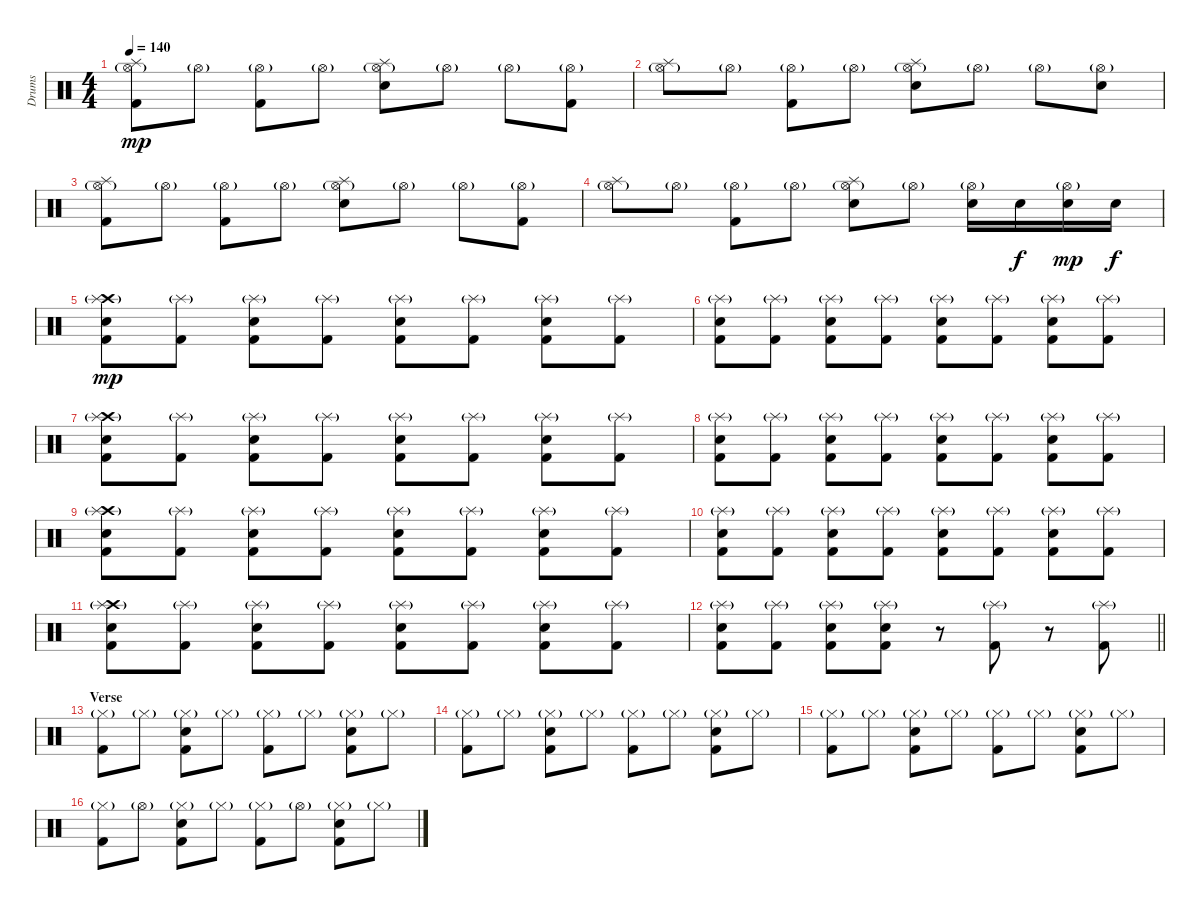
\track ("Drums" "Drums") {instrument percussion}
\staff {score}
\articulation defaults
\ts (4 4)
\tempo 140
\clef neutral
\ks c
("Hi-Hat (open)"{g} "Splash (hit)" "Kick (hit) 2").8{dy mp} "Hi-Hat (open)"{g}.8 ("Hi-Hat (open)"{g} "Kick (hit) 2").8 "Hi-Hat (open)"{g}.8 ("Hi-Hat (open)"{g} "Splash (hit)" "Electric Snare (hit)").8 "Hi-Hat (open)"{g}.8 "Hi-Hat (open)"{g}.8 ("Hi-Hat (open)"{g} "Kick (hit) 2").8 |
("Hi-Hat (open)"{g} "Splash (hit)").8 "Hi-Hat (open)"{g}.8 ("Hi-Hat (open)"{g} "Kick (hit) 2").8 "Hi-Hat (open)"{g}.8 ("Hi-Hat (open)"{g} "Splash (hit)" "Electric Snare (hit)").8 "Hi-Hat (open)"{g}.8 "Hi-Hat (open)"{g}.8 ("Hi-Hat (open)"{g} "Electric Snare (hit)").8 |
("Hi-Hat (open)"{g} "Splash (hit)" "Kick (hit) 2").8 "Hi-Hat (open)"{g}.8 ("Hi-Hat (open)"{g} "Kick (hit) 2").8 "Hi-Hat (open)"{g}.8 ("Hi-Hat (open)"{g} "Splash (hit)" "Electric Snare (hit)").8 "Hi-Hat (open)"{g}.8 "Hi-Hat (open)"{g}.8 ("Hi-Hat (open)"{g} "Kick (hit) 2").8 |
("Hi-Hat (open)"{g} "Splash (hit)").8 "Hi-Hat (open)"{g}.8 ("Hi-Hat (open)"{g} "Kick (hit) 2").8 "Hi-Hat (open)"{g}.8 ("Hi-Hat (open)"{g} "Splash (hit)" "Electric Snare (hit)").8 "Hi-Hat (open)"{g}.8 ("Hi-Hat (open)"{g} "Electric Snare (hit)").16 "Electric Snare (hit)".16{dy f} ("Hi-Hat (open)"{g} "Electric Snare (hit)").16{dy mp} "Electric Snare (hit)".16{dy f} |
("Crash high (hit)" "Splash (hit)"{g} "Electric Snare (hit)" "Kick (hit) 2").8{dy mp} ("Splash (hit)"{g} "Kick (hit) 2").8 ("Splash (hit)"{g} "Electric Snare (hit)" "Kick (hit) 2").8 ("Splash (hit)"{g} "Kick (hit) 2").8 ("Splash (hit)"{g} "Electric Snare (hit)" "Kick (hit) 2").8 ("Splash (hit)"{g} "Kick (hit) 2").8 ("Splash (hit)"{g} "Electric Snare (hit)" "Kick (hit) 2").8 ("Splash (hit)"{g} "Kick (hit) 2").8 |
("Splash (hit)"{g} "Electric Snare (hit)" "Kick (hit) 2").8 ("Splash (hit)"{g} "Kick (hit) 2").8 ("Splash (hit)"{g} "Electric Snare (hit)" "Kick (hit) 2").8 ("Splash (hit)"{g} "Kick (hit) 2").8 ("Splash (hit)"{g} "Electric Snare (hit)" "Kick (hit) 2").8 ("Splash (hit)"{g} "Kick (hit) 2").8 ("Splash (hit)"{g} "Electric Snare (hit)" "Kick (hit) 2").8 ("Splash (hit)"{g} "Kick (hit) 2").8 |
("Crash high (hit)" "Splash (hit)"{g} "Electric Snare (hit)" "Kick (hit) 2").8 ("Splash (hit)"{g} "Kick (hit) 2").8 ("Splash (hit)"{g} "Electric Snare (hit)" "Kick (hit) 2").8 ("Splash (hit)"{g} "Kick (hit) 2").8 ("Splash (hit)"{g} "Electric Snare (hit)" "Kick (hit) 2").8 ("Splash (hit)"{g} "Kick (hit) 2").8 ("Splash (hit)"{g} "Electric Snare (hit)" "Kick (hit) 2").8 ("Splash (hit)"{g} "Kick (hit) 2").8 |
("Splash (hit)"{g} "Electric Snare (hit)" "Kick (hit) 2").8 ("Splash (hit)"{g} "Kick (hit) 2").8 ("Splash (hit)"{g} "Electric Snare (hit)" "Kick (hit) 2").8 ("Splash (hit)"{g} "Kick (hit) 2").8 ("Splash (hit)"{g} "Electric Snare (hit)" "Kick (hit) 2").8 ("Splash (hit)"{g} "Kick (hit) 2").8 ("Splash (hit)"{g} "Electric Snare (hit)" "Kick (hit) 2").8 ("Splash (hit)"{g} "Kick (hit) 2").8 |
("Crash high (hit)" "Splash (hit)"{g} "Electric Snare (hit)" "Kick (hit) 2").8 ("Splash (hit)"{g} "Kick (hit) 2").8 ("Splash (hit)"{g} "Electric Snare (hit)" "Kick (hit) 2").8 ("Splash (hit)"{g} "Kick (hit) 2").8 ("Splash (hit)"{g} "Electric Snare (hit)" "Kick (hit) 2").8 ("Splash (hit)"{g} "Kick (hit) 2").8 ("Splash (hit)"{g} "Electric Snare (hit)" "Kick (hit) 2").8 ("Splash (hit)"{g} "Kick (hit) 2").8 |
("Splash (hit)"{g} "Electric Snare (hit)" "Kick (hit) 2").8 ("Splash (hit)"{g} "Kick (hit) 2").8 ("Splash (hit)"{g} "Electric Snare (hit)" "Kick (hit) 2").8 ("Splash (hit)"{g} "Kick (hit) 2").8 ("Splash (hit)"{g} "Electric Snare (hit)" "Kick (hit) 2").8 ("Splash (hit)"{g} "Kick (hit) 2").8 ("Splash (hit)"{g} "Electric Snare (hit)" "Kick (hit) 2").8 ("Splash (hit)"{g} "Kick (hit) 2").8 |
("Crash high (hit)" "Splash (hit)"{g} "Electric Snare (hit)" "Kick (hit) 2").8 ("Splash (hit)"{g} "Kick (hit) 2").8 ("Splash (hit)"{g} "Electric Snare (hit)" "Kick (hit) 2").8 ("Splash (hit)"{g} "Kick (hit) 2").8 ("Splash (hit)"{g} "Electric Snare (hit)" "Kick (hit) 2").8 ("Splash (hit)"{g} "Kick (hit) 2").8 ("Splash (hit)"{g} "Electric Snare (hit)" "Kick (hit) 2").8 ("Splash (hit)"{g} "Kick (hit) 2").8 |
\barLineRight lightlight
("Splash (hit)"{g} "Electric Snare (hit)" "Kick (hit) 2").8 ("Splash (hit)"{g} "Kick (hit) 2").8 ("Splash (hit)"{g} "Electric Snare (hit)" "Kick (hit) 2").8 ("Splash (hit)"{g} "Electric Snare (hit)" "Kick (hit) 2").8 r.8 ("Splash (hit)"{g} "Kick (hit) 2").8 r.8 ("Splash (hit)"{g} "Kick (hit) 2").8 |
\section ("" "Verse")
("Hi-Hat (closed)"{g} "Kick (hit) 2").8 "Hi-Hat (closed)"{g}.8 ("Hi-Hat (closed)"{g} "Electric Snare (hit)" "Kick (hit) 2").8 "Hi-Hat (closed)"{g}.8 ("Hi-Hat (closed)"{g} "Kick (hit) 2").8 "Hi-Hat (closed)"{g}.8 ("Hi-Hat (closed)"{g} "Electric Snare (hit)" "Kick (hit) 2").8 "Hi-Hat (closed)"{g}.8 |
("Hi-Hat (closed)"{g} "Kick (hit) 2").8 "Hi-Hat (closed)"{g}.8 ("Hi-Hat (closed)"{g} "Electric Snare (hit)" "Kick (hit) 2").8 "Hi-Hat (closed)"{g}.8 ("Hi-Hat (closed)"{g} "Kick (hit) 2").8 "Hi-Hat (closed)"{g}.8 ("Hi-Hat (closed)"{g} "Electric Snare (hit)" "Kick (hit) 2").8 "Hi-Hat (closed)"{g}.8 |
("Hi-Hat (closed)"{g} "Kick (hit) 2").8 "Hi-Hat (closed)"{g}.8 ("Hi-Hat (closed)"{g} "Electric Snare (hit)" "Kick (hit) 2").8 "Hi-Hat (closed)"{g}.8 ("Hi-Hat (closed)"{g} "Kick (hit) 2").8 "Hi-Hat (closed)"{g}.8 ("Hi-Hat (closed)"{g} "Electric Snare (hit)" "Kick (hit) 2").8 "Hi-Hat (closed)"{g}.8 |
("Hi-Hat (closed)"{g} "Kick (hit) 2").8 "Hi-Hat (open)"{g}.8 ("Hi-Hat (closed)"{g} "Electric Snare (hit)" "Kick (hit) 2").8 "Hi-Hat (closed)"{g}.8 ("Hi-Hat (closed)"{g} "Kick (hit) 2").8 "Hi-Hat (open)"{g}.8 ("Hi-Hat (closed)"{g} "Electric Snare (hit)" "Kick (hit) 2").8 "Hi-Hat (closed)"{g}.8
